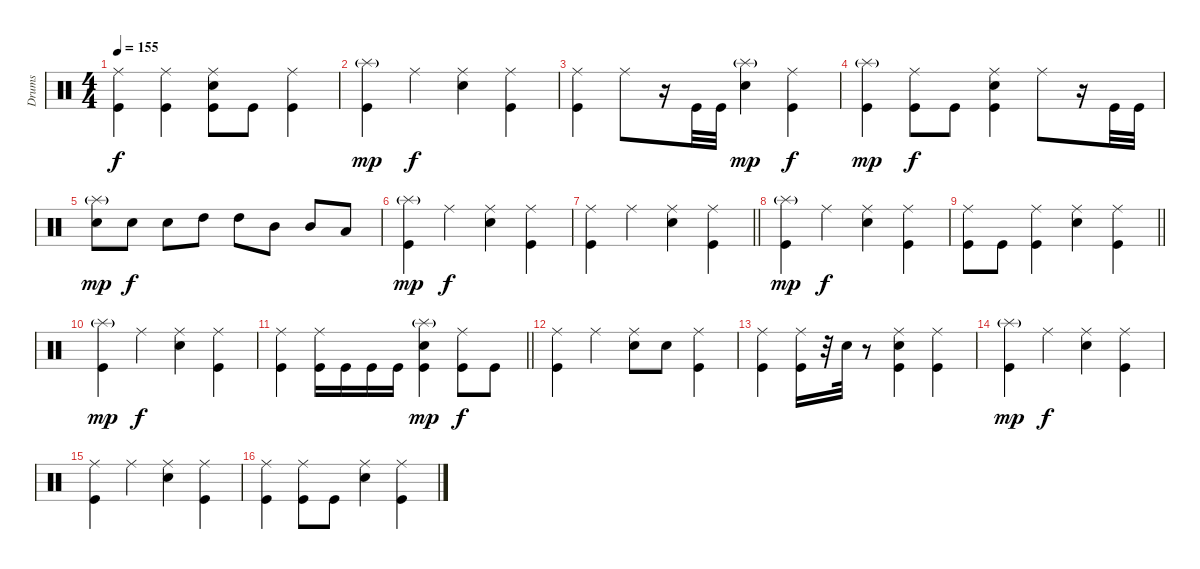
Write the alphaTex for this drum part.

\track ("Drums" "Drums") {instrument percussion}
\staff {score}
\articulation defaults
\ts (4 4)
\tempo 155
\clef neutral
\ks c
("Ride (middle)" "Kick (hit)").4{dy f} ("Ride (middle)" "Kick (hit)").4 ("Ride (middle)" "Snare (hit) 2" "Kick (hit)").8 "Kick (hit)".8 ("Ride (middle)" "Kick (hit)").4 |
("Splash (hit)"{g} "Kick (hit)").4{dy mp} "Ride (middle)".4{dy f} ("Ride (middle)" "Snare (hit) 2").4 ("Ride (middle)" "Kick (hit)").4 |
("Ride (middle)" "Kick (hit)").4 "Ride (middle)".8 r.16 "Kick (hit)".32 "Kick (hit)".32 ("Splash (hit)"{g} "Snare (hit) 2").4{dy mp} ("Ride (middle)" "Kick (hit)").4{dy f} |
("Splash (hit)"{g} "Kick (hit)").4{dy mp} ("Ride (middle)" "Kick (hit)").8{dy f} "Kick (hit)".8 ("Ride (middle)" "Snare (hit) 2" "Kick (hit)").4 "Ride (middle)".8 r.16 "Kick (hit)".32 "Kick (hit)".32 |
("Splash (hit)"{g} "Snare (hit) 2").8{dy mp} "Snare (hit) 2".8{dy f} "Snare (hit) 2".8 "High Tom (hit)".8 "High Tom (hit)".8 "Mid Tom (hit)".8 "Mid Tom (hit)".8 "Low Tom (hit)".8 |
("Splash (hit)"{g} "Kick (hit)").4{dy mp} "Ride (middle)".4{dy f} ("Ride (middle)" "Snare (hit) 2").4 ("Ride (middle)" "Kick (hit)").4 |
\barLineRight lightlight
("Ride (middle)" "Kick (hit)").4 "Ride (middle)".4 ("Ride (middle)" "Snare (hit) 2").4 ("Ride (middle)" "Kick (hit)").4 |
("Splash (hit)"{g} "Kick (hit)").4{dy mp} "Ride (middle)".4{dy f} ("Ride (middle)" "Snare (hit) 2").4 ("Ride (middle)" "Kick (hit)").4 |
\barLineRight lightlight
("Ride (middle)" "Kick (hit)").8 "Kick (hit)".8 ("Ride (middle)" "Kick (hit)").4 ("Ride (middle)" "Snare (hit) 2").4 ("Ride (middle)" "Kick (hit)").4 |
("Splash (hit)"{g} "Kick (hit)").4{dy mp} "Ride (middle)".4{dy f} ("Ride (middle)" "Snare (hit) 2").4 ("Ride (middle)" "Kick (hit)").4 |
\barLineRight lightlight
("Ride (middle)" "Kick (hit)").4 ("Ride (middle)" "Kick (hit)").16 "Kick (hit)".16 "Kick (hit)".16 "Kick (hit)".16 ("Splash (hit)"{g} "Snare (hit) 2" "Kick (hit)").4{dy mp} ("Ride (middle)" "Kick (hit)").8{dy f} "Kick (hit)".8 |
("Ride (middle)" "Kick (hit)").4 "Ride (middle)".4 ("Ride (middle)" "Snare (hit) 2").8 "Snare (hit) 2".8 ("Ride (middle)" "Kick (hit)").4 |
("Ride (middle)" "Kick (hit)").4 ("Ride (middle)" "Kick (hit)").16 r.32 "Snare (hit) 2".32 r.8 ("Ride (middle)" "Snare (hit) 2" "Kick (hit)").4 ("Ride (middle)" "Kick (hit)").4 |
("Splash (hit)"{g} "Kick (hit)").4{dy mp} "Ride (middle)".4{dy f} ("Ride (middle)" "Snare (hit) 2").4 ("Ride (middle)" "Kick (hit)").4 |
("Ride (middle)" "Kick (hit)").4 "Ride (middle)".4 ("Ride (middle)" "Snare (hit) 2").4 ("Ride (middle)" "Kick (hit)").4 |
("Ride (middle)" "Kick (hit)").4 ("Ride (middle)" "Kick (hit)").8 "Kick (hit)".8 ("Ride (middle)" "Snare (hit) 2").4 ("Ride (middle)" "Kick (hit)").4
